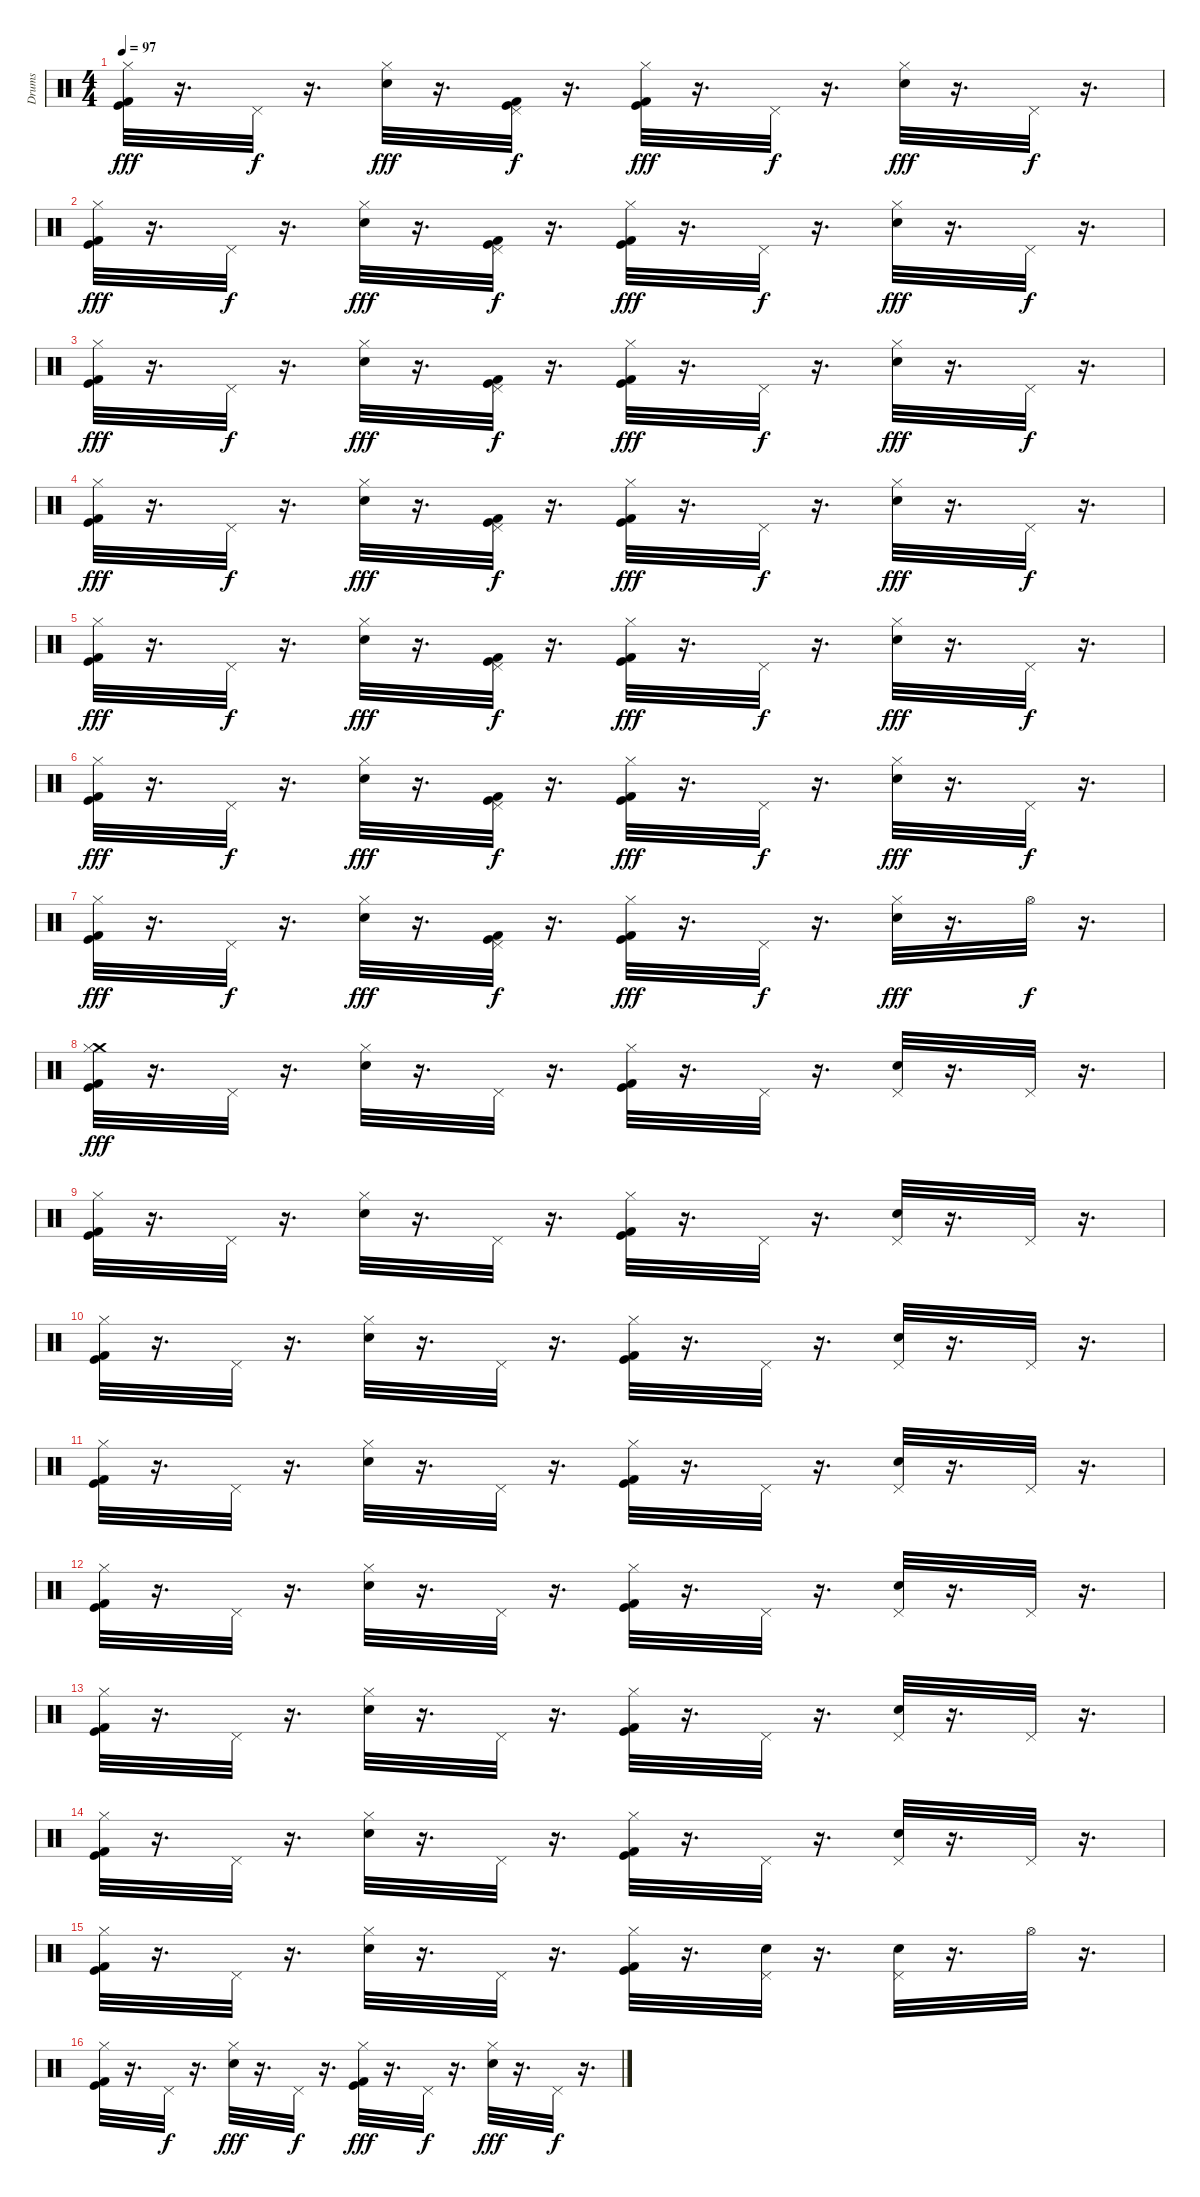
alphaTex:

\track ("Drums" "Drums") {instrument percussion}
\staff {score}
\articulation defaults
\ts (4 4)
\tempo 97
\clef neutral
\ks c
("Kick (hit)" "Kick (hit) 2" "Hi-Hat (closed)").32{dy fff} r.16{d} "Pedal Hi-Hat (hit)".32{dy f} r.16{d} ("Hi-Hat (closed)" "Snare (hit) 2").32{dy fff} r.16{d} ("Kick (hit) 2" "Kick (hit)" "Pedal Hi-Hat (hit)").32{dy f} r.16{d} ("Kick (hit)" "Kick (hit) 2" "Hi-Hat (closed)").32{dy fff} r.16{d} "Pedal Hi-Hat (hit)".32{dy f} r.16{d} ("Hi-Hat (closed)" "Snare (hit) 2").32{dy fff} r.16{d} "Pedal Hi-Hat (hit)".32{dy f} r.16{d} |
("Kick (hit)" "Kick (hit) 2" "Hi-Hat (closed)").32{dy fff} r.16{d} "Pedal Hi-Hat (hit)".32{dy f} r.16{d} ("Hi-Hat (closed)" "Snare (hit) 2").32{dy fff} r.16{d} ("Kick (hit) 2" "Kick (hit)" "Pedal Hi-Hat (hit)").32{dy f} r.16{d} ("Kick (hit)" "Kick (hit) 2" "Hi-Hat (closed)").32{dy fff} r.16{d} "Pedal Hi-Hat (hit)".32{dy f} r.16{d} ("Hi-Hat (closed)" "Snare (hit) 2").32{dy fff} r.16{d} "Pedal Hi-Hat (hit)".32{dy f} r.16{d} |
("Kick (hit)" "Kick (hit) 2" "Hi-Hat (closed)").32{dy fff} r.16{d} "Pedal Hi-Hat (hit)".32{dy f} r.16{d} ("Hi-Hat (closed)" "Snare (hit) 2").32{dy fff} r.16{d} ("Kick (hit) 2" "Kick (hit)" "Pedal Hi-Hat (hit)").32{dy f} r.16{d} ("Kick (hit)" "Kick (hit) 2" "Hi-Hat (closed)").32{dy fff} r.16{d} "Pedal Hi-Hat (hit)".32{dy f} r.16{d} ("Hi-Hat (closed)" "Snare (hit) 2").32{dy fff} r.16{d} "Pedal Hi-Hat (hit)".32{dy f} r.16{d} |
("Kick (hit)" "Kick (hit) 2" "Hi-Hat (closed)").32{dy fff} r.16{d} "Pedal Hi-Hat (hit)".32{dy f} r.16{d} ("Hi-Hat (closed)" "Snare (hit) 2").32{dy fff} r.16{d} ("Kick (hit) 2" "Kick (hit)" "Pedal Hi-Hat (hit)").32{dy f} r.16{d} ("Kick (hit)" "Kick (hit) 2" "Hi-Hat (closed)").32{dy fff} r.16{d} "Pedal Hi-Hat (hit)".32{dy f} r.16{d} ("Hi-Hat (closed)" "Snare (hit) 2").32{dy fff} r.16{d} "Pedal Hi-Hat (hit)".32{dy f} r.16{d} |
("Kick (hit)" "Kick (hit) 2" "Hi-Hat (closed)").32{dy fff} r.16{d} "Pedal Hi-Hat (hit)".32{dy f} r.16{d} ("Hi-Hat (closed)" "Snare (hit) 2").32{dy fff} r.16{d} ("Kick (hit) 2" "Kick (hit)" "Pedal Hi-Hat (hit)").32{dy f} r.16{d} ("Kick (hit)" "Kick (hit) 2" "Hi-Hat (closed)").32{dy fff} r.16{d} "Pedal Hi-Hat (hit)".32{dy f} r.16{d} ("Hi-Hat (closed)" "Snare (hit) 2").32{dy fff} r.16{d} "Pedal Hi-Hat (hit)".32{dy f} r.16{d} |
("Kick (hit)" "Kick (hit) 2" "Hi-Hat (closed)").32{dy fff} r.16{d} "Pedal Hi-Hat (hit)".32{dy f} r.16{d} ("Hi-Hat (closed)" "Snare (hit) 2").32{dy fff} r.16{d} ("Kick (hit) 2" "Kick (hit)" "Pedal Hi-Hat (hit)").32{dy f} r.16{d} ("Kick (hit)" "Kick (hit) 2" "Hi-Hat (closed)").32{dy fff} r.16{d} "Pedal Hi-Hat (hit)".32{dy f} r.16{d} ("Hi-Hat (closed)" "Snare (hit) 2").32{dy fff} r.16{d} "Pedal Hi-Hat (hit)".32{dy f} r.16{d} |
("Kick (hit)" "Kick (hit) 2" "Hi-Hat (closed)").32{dy fff} r.16{d} "Pedal Hi-Hat (hit)".32{dy f} r.16{d} ("Hi-Hat (closed)" "Snare (hit) 2").32{dy fff} r.16{d} ("Kick (hit) 2" "Kick (hit)" "Pedal Hi-Hat (hit)").32{dy f} r.16{d} ("Kick (hit)" "Kick (hit) 2" "Hi-Hat (closed)").32{dy fff} r.16{d} "Pedal Hi-Hat (hit)".32{dy f} r.16{d} ("Hi-Hat (closed)" "Snare (hit) 2").32{dy fff} r.16{d} "Hi-Hat (open)".32{dy f} r.16{d} |
("Crash medium (hit)" "Kick (hit)" "Kick (hit) 2" "Hi-Hat (closed)").32{dy fff} r.16{d} "Pedal Hi-Hat (hit)".32 r.16{d} ("Hi-Hat (closed)" "Snare (hit) 2").32 r.16{d} "Pedal Hi-Hat (hit)".32 r.16{d} ("Kick (hit)" "Kick (hit) 2" "Hi-Hat (closed)").32 r.16{d} "Pedal Hi-Hat (hit)".32 r.16{d} ("Pedal Hi-Hat (hit)" "Snare (hit) 2").32 r.16{d} "Pedal Hi-Hat (hit)".32 r.16{d} |
("Kick (hit)" "Kick (hit) 2" "Hi-Hat (closed)").32 r.16{d} "Pedal Hi-Hat (hit)".32 r.16{d} ("Hi-Hat (closed)" "Snare (hit) 2").32 r.16{d} "Pedal Hi-Hat (hit)".32 r.16{d} ("Kick (hit)" "Kick (hit) 2" "Hi-Hat (closed)").32 r.16{d} "Pedal Hi-Hat (hit)".32 r.16{d} ("Pedal Hi-Hat (hit)" "Snare (hit) 2").32 r.16{d} "Pedal Hi-Hat (hit)".32 r.16{d} |
("Kick (hit)" "Kick (hit) 2" "Hi-Hat (closed)").32 r.16{d} "Pedal Hi-Hat (hit)".32 r.16{d} ("Hi-Hat (closed)" "Snare (hit) 2").32 r.16{d} "Pedal Hi-Hat (hit)".32 r.16{d} ("Kick (hit)" "Kick (hit) 2" "Hi-Hat (closed)").32 r.16{d} "Pedal Hi-Hat (hit)".32 r.16{d} ("Pedal Hi-Hat (hit)" "Snare (hit) 2").32 r.16{d} "Pedal Hi-Hat (hit)".32 r.16{d} |
("Kick (hit)" "Kick (hit) 2" "Hi-Hat (closed)").32 r.16{d} "Pedal Hi-Hat (hit)".32 r.16{d} ("Hi-Hat (closed)" "Snare (hit) 2").32 r.16{d} "Pedal Hi-Hat (hit)".32 r.16{d} ("Kick (hit)" "Kick (hit) 2" "Hi-Hat (closed)").32 r.16{d} "Pedal Hi-Hat (hit)".32 r.16{d} ("Pedal Hi-Hat (hit)" "Snare (hit) 2").32 r.16{d} "Pedal Hi-Hat (hit)".32 r.16{d} |
("Kick (hit)" "Kick (hit) 2" "Hi-Hat (closed)").32 r.16{d} "Pedal Hi-Hat (hit)".32 r.16{d} ("Hi-Hat (closed)" "Snare (hit) 2").32 r.16{d} "Pedal Hi-Hat (hit)".32 r.16{d} ("Kick (hit)" "Kick (hit) 2" "Hi-Hat (closed)").32 r.16{d} "Pedal Hi-Hat (hit)".32 r.16{d} ("Pedal Hi-Hat (hit)" "Snare (hit) 2").32 r.16{d} "Pedal Hi-Hat (hit)".32 r.16{d} |
("Kick (hit)" "Kick (hit) 2" "Hi-Hat (closed)").32 r.16{d} "Pedal Hi-Hat (hit)".32 r.16{d} ("Hi-Hat (closed)" "Snare (hit) 2").32 r.16{d} "Pedal Hi-Hat (hit)".32 r.16{d} ("Kick (hit)" "Kick (hit) 2" "Hi-Hat (closed)").32 r.16{d} "Pedal Hi-Hat (hit)".32 r.16{d} ("Pedal Hi-Hat (hit)" "Snare (hit) 2").32 r.16{d} "Pedal Hi-Hat (hit)".32 r.16{d} |
("Kick (hit)" "Kick (hit) 2" "Hi-Hat (closed)").32 r.16{d} "Pedal Hi-Hat (hit)".32 r.16{d} ("Hi-Hat (closed)" "Snare (hit) 2").32 r.16{d} "Pedal Hi-Hat (hit)".32 r.16{d} ("Kick (hit)" "Kick (hit) 2" "Hi-Hat (closed)").32 r.16{d} "Pedal Hi-Hat (hit)".32 r.16{d} ("Pedal Hi-Hat (hit)" "Snare (hit) 2").32 r.16{d} "Pedal Hi-Hat (hit)".32 r.16{d} |
("Kick (hit)" "Kick (hit) 2" "Hi-Hat (closed)").32 r.16{d} "Pedal Hi-Hat (hit)".32 r.16{d} ("Hi-Hat (closed)" "Snare (hit) 2").32 r.16{d} "Pedal Hi-Hat (hit)".32 r.16{d} ("Kick (hit)" "Kick (hit) 2" "Hi-Hat (closed)").32 r.16{d} ("Snare (hit) 2" "Pedal Hi-Hat (hit)").32 r.16{d} ("Pedal Hi-Hat (hit)" "Snare (hit) 2").32 r.16{d} "Hi-Hat (open)".32 r.16{d} |
("Kick (hit)" "Kick (hit) 2" "Hi-Hat (closed)").32 r.16{d} "Pedal Hi-Hat (hit)".32{dy f} r.16{d} ("Hi-Hat (closed)" "Snare (hit) 2").32{dy fff} r.16{d} "Pedal Hi-Hat (hit)".32{dy f} r.16{d} ("Kick (hit)" "Kick (hit) 2" "Hi-Hat (closed)").32{dy fff} r.16{d} "Pedal Hi-Hat (hit)".32{dy f} r.16{d} ("Hi-Hat (closed)" "Snare (hit) 2").32{dy fff} r.16{d} "Pedal Hi-Hat (hit)".32{dy f} r.16{d}
